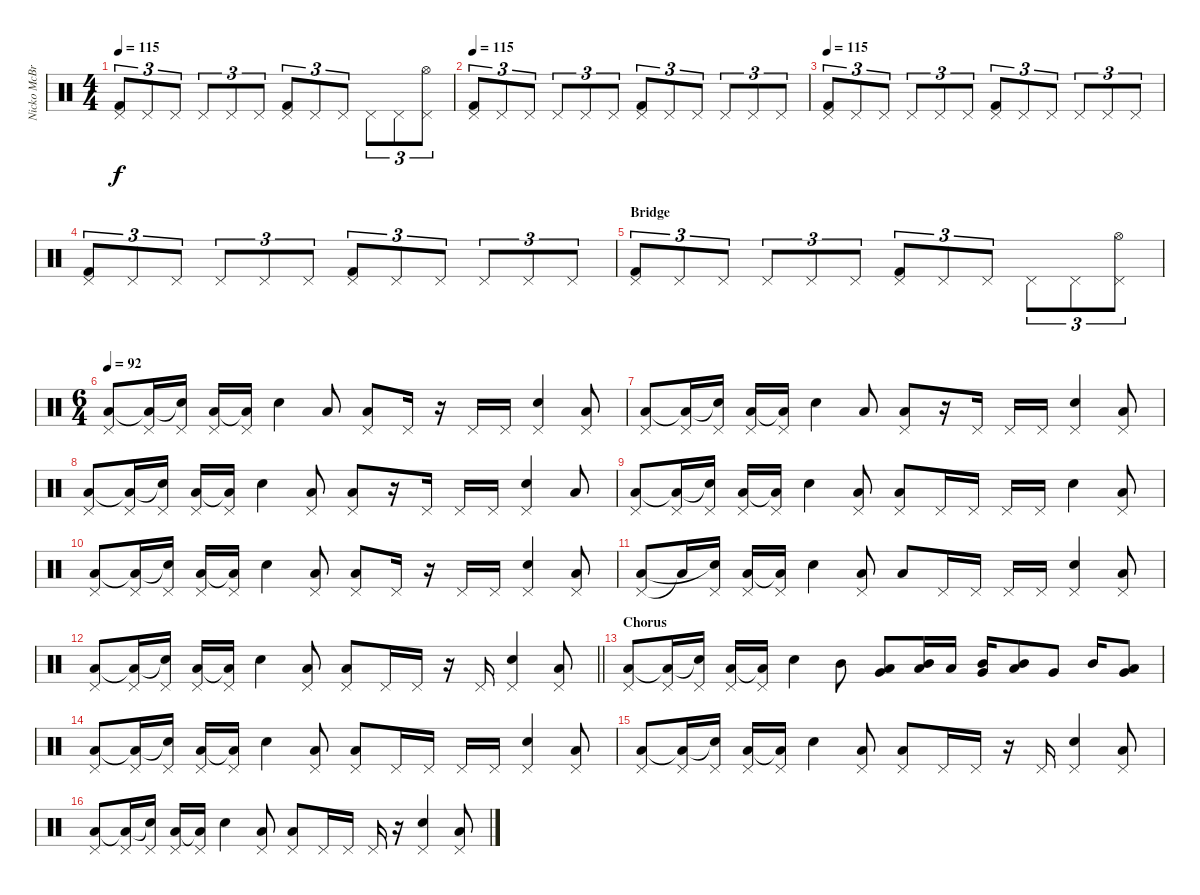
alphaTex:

\track ("Nicko McBrain" "Nicko McBr") {instrument percussion}
\staff {score}
\articulation defaults
\ts (4 4)
\tempo 115
\clef neutral
\ks c
("Pedal Hi-Hat (hit)" "Kick (hit) 2").8{tu (3 2) dy f} "Pedal Hi-Hat (hit)".8{tu (3 2)} "Pedal Hi-Hat (hit)".8{tu (3 2)} "Pedal Hi-Hat (hit)".8{tu (3 2)} "Pedal Hi-Hat (hit)".8{tu (3 2)} "Pedal Hi-Hat (hit)".8{tu (3 2)} ("Pedal Hi-Hat (hit)" "Kick (hit) 2").8{tu (3 2)} "Pedal Hi-Hat (hit)".8{tu (3 2)} "Pedal Hi-Hat (hit)".8{tu (3 2)} "Pedal Hi-Hat (hit)".8{tu (3 2)} "Pedal Hi-Hat (hit)".8{tu (3 2)} ("Pedal Hi-Hat (hit)" "Hi-Hat (open)").8{tu (3 2)} |
\tempo 115
("Pedal Hi-Hat (hit)" "Kick (hit) 2").8{tu (3 2)} "Pedal Hi-Hat (hit)".8{tu (3 2)} "Pedal Hi-Hat (hit)".8{tu (3 2)} "Pedal Hi-Hat (hit)".8{tu (3 2)} "Pedal Hi-Hat (hit)".8{tu (3 2)} "Pedal Hi-Hat (hit)".8{tu (3 2)} ("Pedal Hi-Hat (hit)" "Kick (hit) 2").8{tu (3 2)} "Pedal Hi-Hat (hit)".8{tu (3 2)} "Pedal Hi-Hat (hit)".8{tu (3 2)} "Pedal Hi-Hat (hit)".8{tu (3 2)} "Pedal Hi-Hat (hit)".8{tu (3 2)} "Pedal Hi-Hat (hit)".8{tu (3 2)} |
\tempo 115
("Pedal Hi-Hat (hit)" "Kick (hit) 2").8{tu (3 2)} "Pedal Hi-Hat (hit)".8{tu (3 2)} "Pedal Hi-Hat (hit)".8{tu (3 2)} "Pedal Hi-Hat (hit)".8{tu (3 2)} "Pedal Hi-Hat (hit)".8{tu (3 2)} "Pedal Hi-Hat (hit)".8{tu (3 2)} ("Pedal Hi-Hat (hit)" "Kick (hit) 2").8{tu (3 2)} "Pedal Hi-Hat (hit)".8{tu (3 2)} "Pedal Hi-Hat (hit)".8{tu (3 2)} "Pedal Hi-Hat (hit)".8{tu (3 2)} "Pedal Hi-Hat (hit)".8{tu (3 2)} "Pedal Hi-Hat (hit)".8{tu (3 2)} |
("Pedal Hi-Hat (hit)" "Kick (hit) 2").8{tu (3 2)} "Pedal Hi-Hat (hit)".8{tu (3 2)} "Pedal Hi-Hat (hit)".8{tu (3 2)} "Pedal Hi-Hat (hit)".8{tu (3 2)} "Pedal Hi-Hat (hit)".8{tu (3 2)} "Pedal Hi-Hat (hit)".8{tu (3 2)} ("Pedal Hi-Hat (hit)" "Kick (hit) 2").8{tu (3 2)} "Pedal Hi-Hat (hit)".8{tu (3 2)} "Pedal Hi-Hat (hit)".8{tu (3 2)} "Pedal Hi-Hat (hit)".8{tu (3 2)} "Pedal Hi-Hat (hit)".8{tu (3 2)} "Pedal Hi-Hat (hit)".8{tu (3 2)} |
\section ("" "Bridge")
("Pedal Hi-Hat (hit)" "Kick (hit) 2").8{tu (3 2)} "Pedal Hi-Hat (hit)".8{tu (3 2)} "Pedal Hi-Hat (hit)".8{tu (3 2)} "Pedal Hi-Hat (hit)".8{tu (3 2)} "Pedal Hi-Hat (hit)".8{tu (3 2)} "Pedal Hi-Hat (hit)".8{tu (3 2)} ("Pedal Hi-Hat (hit)" "Kick (hit) 2").8{tu (3 2)} "Pedal Hi-Hat (hit)".8{tu (3 2)} "Pedal Hi-Hat (hit)".8{tu (3 2)} "Pedal Hi-Hat (hit)".8{tu (3 2)} "Pedal Hi-Hat (hit)".8{tu (3 2)} ("Pedal Hi-Hat (hit)" "Hi-Hat (open)").8{tu (3 2)} |
\ts (6 4)
\tempo 100
\tempo 92
("Pedal Hi-Hat (hit)" "Low Floor Tom (hit)").8{volume 12} ("Pedal Hi-Hat (hit)" "Low Floor Tom (hit)"{t}).16 ("Pedal Hi-Hat (hit)" "Electric Snare (hit)"{t}).16 ("Pedal Hi-Hat (hit)" "Low Floor Tom (hit)").16 ("Pedal Hi-Hat (hit)" "Low Floor Tom (hit)"{t}).16 "Electric Snare (hit)".4 "Low Floor Tom (hit)".8 ("Pedal Hi-Hat (hit)" "Low Floor Tom (hit)").8 "Pedal Hi-Hat (hit)".16 r.16 "Pedal Hi-Hat (hit)".16 "Pedal Hi-Hat (hit)".16 ("Pedal Hi-Hat (hit)" "Electric Snare (hit)").4 ("Pedal Hi-Hat (hit)" "Low Floor Tom (hit)").8 |
("Pedal Hi-Hat (hit)" "Low Floor Tom (hit)").8 ("Pedal Hi-Hat (hit)" "Low Floor Tom (hit)"{t}).16 ("Pedal Hi-Hat (hit)" "Electric Snare (hit)"{t}).16 ("Pedal Hi-Hat (hit)" "Low Floor Tom (hit)").16 ("Pedal Hi-Hat (hit)" "Low Floor Tom (hit)"{t}).16 "Electric Snare (hit)".4 "Low Floor Tom (hit)".8 ("Pedal Hi-Hat (hit)" "Low Floor Tom (hit)").8 r.16 "Pedal Hi-Hat (hit)".16 "Pedal Hi-Hat (hit)".16 "Pedal Hi-Hat (hit)".16 ("Pedal Hi-Hat (hit)" "Electric Snare (hit)").4 ("Pedal Hi-Hat (hit)" "Low Floor Tom (hit)").8 |
("Pedal Hi-Hat (hit)" "Low Floor Tom (hit)").8 ("Pedal Hi-Hat (hit)" "Low Floor Tom (hit)"{t}).16 ("Pedal Hi-Hat (hit)" "Electric Snare (hit)"{t}).16 ("Pedal Hi-Hat (hit)" "Low Floor Tom (hit)").16 ("Pedal Hi-Hat (hit)" "Low Floor Tom (hit)"{t}).16 "Electric Snare (hit)".4 ("Pedal Hi-Hat (hit)" "Low Floor Tom (hit)").8 ("Pedal Hi-Hat (hit)" "Low Floor Tom (hit)").8 r.16 "Pedal Hi-Hat (hit)".16 "Pedal Hi-Hat (hit)".16 "Pedal Hi-Hat (hit)".16 ("Pedal Hi-Hat (hit)" "Electric Snare (hit)").4 "Low Floor Tom (hit)".8 |
("Pedal Hi-Hat (hit)" "Low Floor Tom (hit)").8 ("Pedal Hi-Hat (hit)" "Low Floor Tom (hit)"{t}).16 ("Pedal Hi-Hat (hit)" "Electric Snare (hit)"{t}).16 ("Pedal Hi-Hat (hit)" "Low Floor Tom (hit)").16 ("Pedal Hi-Hat (hit)" "Low Floor Tom (hit)"{t}).16 "Electric Snare (hit)".4 ("Pedal Hi-Hat (hit)" "Low Floor Tom (hit)").8 ("Pedal Hi-Hat (hit)" "Low Floor Tom (hit)").8 "Pedal Hi-Hat (hit)".16 "Pedal Hi-Hat (hit)".16 "Pedal Hi-Hat (hit)".16 "Pedal Hi-Hat (hit)".16 "Electric Snare (hit)".4 ("Pedal Hi-Hat (hit)" "Low Floor Tom (hit)").8 |
("Pedal Hi-Hat (hit)" "Low Floor Tom (hit)").8 ("Pedal Hi-Hat (hit)" "Low Floor Tom (hit)"{t}).16 ("Pedal Hi-Hat (hit)" "Electric Snare (hit)"{t}).16 ("Pedal Hi-Hat (hit)" "Low Floor Tom (hit)").16 ("Pedal Hi-Hat (hit)" "Low Floor Tom (hit)"{t}).16 "Electric Snare (hit)".4 ("Pedal Hi-Hat (hit)" "Low Floor Tom (hit)").8 ("Pedal Hi-Hat (hit)" "Low Floor Tom (hit)").8 "Pedal Hi-Hat (hit)".16 r.16 "Pedal Hi-Hat (hit)".16 "Pedal Hi-Hat (hit)".16 ("Pedal Hi-Hat (hit)" "Electric Snare (hit)").4 ("Pedal Hi-Hat (hit)" "Low Floor Tom (hit)").8 |
("Pedal Hi-Hat (hit)" "Low Floor Tom (hit)").8 "Low Floor Tom (hit)"{t}.16 ("Pedal Hi-Hat (hit)" "Electric Snare (hit)"{t}).16 ("Pedal Hi-Hat (hit)" "Low Floor Tom (hit)").16 ("Pedal Hi-Hat (hit)" "Low Floor Tom (hit)"{t}).16 "Electric Snare (hit)".4 ("Pedal Hi-Hat (hit)" "Low Floor Tom (hit)").8 "Low Floor Tom (hit)".8 "Pedal Hi-Hat (hit)".16 "Pedal Hi-Hat (hit)".16 "Pedal Hi-Hat (hit)".16 "Pedal Hi-Hat (hit)".16 ("Pedal Hi-Hat (hit)" "Electric Snare (hit)").4 ("Pedal Hi-Hat (hit)" "Low Floor Tom (hit)").8 |
\barLineRight lightlight
("Pedal Hi-Hat (hit)" "Low Floor Tom (hit)").8 ("Pedal Hi-Hat (hit)" "Low Floor Tom (hit)"{t}).16 ("Pedal Hi-Hat (hit)" "Electric Snare (hit)"{t}).16 ("Pedal Hi-Hat (hit)" "Low Floor Tom (hit)").16 ("Pedal Hi-Hat (hit)" "Low Floor Tom (hit)"{t}).16 "Electric Snare (hit)".4 ("Pedal Hi-Hat (hit)" "Low Floor Tom (hit)").8 ("Pedal Hi-Hat (hit)" "Low Floor Tom (hit)").8 "Pedal Hi-Hat (hit)".16 "Pedal Hi-Hat (hit)".16 r.16 "Pedal Hi-Hat (hit)".16 ("Pedal Hi-Hat (hit)" "Electric Snare (hit)").4 ("Pedal Hi-Hat (hit)" "Low Floor Tom (hit)").8 |
\section ("" "Chorus")
("Pedal Hi-Hat (hit)" "Low Floor Tom (hit)").8 ("Pedal Hi-Hat (hit)" "Low Floor Tom (hit)"{t}).16 ("Pedal Hi-Hat (hit)" "Electric Snare (hit)"{t}).16 ("Pedal Hi-Hat (hit)" "Low Floor Tom (hit)").16 ("Pedal Hi-Hat (hit)" "Low Floor Tom (hit)"{t}).16 "Electric Snare (hit)".4 "Mid Tom (hit)".8 ("Very Low Tom (hit)" "Low Tom (hit)").8 ("Mid Tom (hit)" "Low Tom (hit)").16 "Low Tom (hit)".16 ("Very Low Tom (hit)" "Mid Tom (hit)").16 ("Mid Tom (hit)" "Low Tom (hit)").8 "Very Low Tom (hit)".8 "Mid Tom (hit)".16 ("Very Low Tom (hit)" "Low Tom (hit)").8 |
("Pedal Hi-Hat (hit)" "Low Floor Tom (hit)").8 ("Pedal Hi-Hat (hit)" "Low Floor Tom (hit)"{t}).16 ("Pedal Hi-Hat (hit)" "Electric Snare (hit)"{t}).16 ("Pedal Hi-Hat (hit)" "Low Floor Tom (hit)").16 ("Pedal Hi-Hat (hit)" "Low Floor Tom (hit)"{t}).16 "Electric Snare (hit)".4 ("Pedal Hi-Hat (hit)" "Low Floor Tom (hit)").8 ("Pedal Hi-Hat (hit)" "Low Floor Tom (hit)").8 "Pedal Hi-Hat (hit)".16 "Pedal Hi-Hat (hit)".16 "Pedal Hi-Hat (hit)".16 "Pedal Hi-Hat (hit)".16 ("Pedal Hi-Hat (hit)" "Electric Snare (hit)").4 ("Pedal Hi-Hat (hit)" "Low Floor Tom (hit)").8 |
("Pedal Hi-Hat (hit)" "Low Floor Tom (hit)").8 ("Pedal Hi-Hat (hit)" "Low Floor Tom (hit)"{t}).16 ("Pedal Hi-Hat (hit)" "Electric Snare (hit)"{t}).16 ("Pedal Hi-Hat (hit)" "Low Floor Tom (hit)").16 ("Pedal Hi-Hat (hit)" "Low Floor Tom (hit)"{t}).16 "Electric Snare (hit)".4 ("Pedal Hi-Hat (hit)" "Low Floor Tom (hit)").8 ("Pedal Hi-Hat (hit)" "Low Floor Tom (hit)").8 "Pedal Hi-Hat (hit)".16 "Pedal Hi-Hat (hit)".16 r.16 "Pedal Hi-Hat (hit)".16 ("Pedal Hi-Hat (hit)" "Electric Snare (hit)").4 ("Pedal Hi-Hat (hit)" "Low Floor Tom (hit)").8 |
("Pedal Hi-Hat (hit)" "Low Floor Tom (hit)").8 ("Pedal Hi-Hat (hit)" "Low Floor Tom (hit)"{t}).16 ("Pedal Hi-Hat (hit)" "Electric Snare (hit)"{t}).16 ("Pedal Hi-Hat (hit)" "Low Floor Tom (hit)").16 ("Pedal Hi-Hat (hit)" "Low Floor Tom (hit)"{t}).16 "Electric Snare (hit)".4 ("Pedal Hi-Hat (hit)" "Low Floor Tom (hit)").8 ("Pedal Hi-Hat (hit)" "Low Floor Tom (hit)").8 "Pedal Hi-Hat (hit)".16 "Pedal Hi-Hat (hit)".16 "Pedal Hi-Hat (hit)".16 r.16 ("Pedal Hi-Hat (hit)" "Electric Snare (hit)").4 ("Pedal Hi-Hat (hit)" "Low Floor Tom (hit)").8
